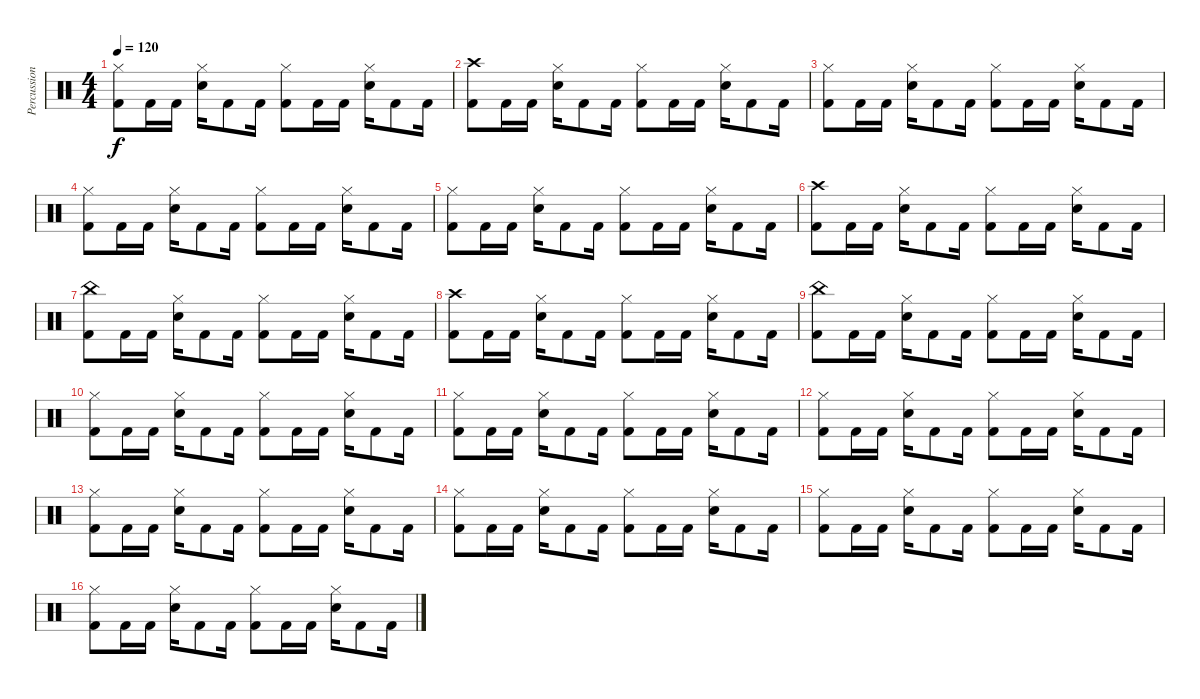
\track ("Percussion" "Percussion") {instrument percussion}
\staff {score}
\articulation defaults
\ts (4 4)
\tempo 120
\clef neutral
\ks c
("Hi-Hat (closed)" "Kick (hit) 2").8{dy f} "Kick (hit) 2".16 "Kick (hit) 2".16 ("Hi-Hat (closed)" "Electric Snare (hit)").16 "Kick (hit) 2".8 "Kick (hit) 2".16 ("Hi-Hat (closed)" "Kick (hit) 2").8 "Kick (hit) 2".16 "Kick (hit) 2".16 ("Hi-Hat (closed)" "Electric Snare (hit)").16 "Kick (hit) 2".8 "Kick (hit) 2".16 |
("Crash high (hit)" "Kick (hit) 2").8 "Kick (hit) 2".16 "Kick (hit) 2".16 ("Hi-Hat (closed)" "Electric Snare (hit)").16 "Kick (hit) 2".8 "Kick (hit) 2".16 ("Hi-Hat (closed)" "Kick (hit) 2").8 "Kick (hit) 2".16 "Kick (hit) 2".16 ("Hi-Hat (closed)" "Electric Snare (hit)").16 "Kick (hit) 2".8 "Kick (hit) 2".16 |
("Hi-Hat (closed)" "Kick (hit) 2").8 "Kick (hit) 2".16 "Kick (hit) 2".16 ("Hi-Hat (closed)" "Electric Snare (hit)").16 "Kick (hit) 2".8 "Kick (hit) 2".16 ("Hi-Hat (closed)" "Kick (hit) 2").8 "Kick (hit) 2".16 "Kick (hit) 2".16 ("Hi-Hat (closed)" "Electric Snare (hit)").16 "Kick (hit) 2".8 "Kick (hit) 2".16 |
("Hi-Hat (closed)" "Kick (hit) 2").8 "Kick (hit) 2".16 "Kick (hit) 2".16 ("Hi-Hat (closed)" "Electric Snare (hit)").16 "Kick (hit) 2".8 "Kick (hit) 2".16 ("Hi-Hat (closed)" "Kick (hit) 2").8 "Kick (hit) 2".16 "Kick (hit) 2".16 ("Hi-Hat (closed)" "Electric Snare (hit)").16 "Kick (hit) 2".8 "Kick (hit) 2".16 |
("Hi-Hat (closed)" "Kick (hit) 2").8 "Kick (hit) 2".16 "Kick (hit) 2".16 ("Hi-Hat (closed)" "Electric Snare (hit)").16 "Kick (hit) 2".8 "Kick (hit) 2".16 ("Hi-Hat (closed)" "Kick (hit) 2").8 "Kick (hit) 2".16 "Kick (hit) 2".16 ("Hi-Hat (closed)" "Electric Snare (hit)").16 "Kick (hit) 2".8 "Kick (hit) 2".16 |
("Crash high (hit)" "Kick (hit) 2").8 "Kick (hit) 2".16 "Kick (hit) 2".16 ("Hi-Hat (closed)" "Electric Snare (hit)").16 "Kick (hit) 2".8 "Kick (hit) 2".16 ("Hi-Hat (closed)" "Kick (hit) 2").8 "Kick (hit) 2".16 "Kick (hit) 2".16 ("Hi-Hat (closed)" "Electric Snare (hit)").16 "Kick (hit) 2".8 "Kick (hit) 2".16 |
("China (hit)" "Kick (hit) 2").8 "Kick (hit) 2".16 "Kick (hit) 2".16 ("Hi-Hat (closed)" "Electric Snare (hit)").16 "Kick (hit) 2".8 "Kick (hit) 2".16 ("Hi-Hat (closed)" "Kick (hit) 2").8 "Kick (hit) 2".16 "Kick (hit) 2".16 ("Hi-Hat (closed)" "Electric Snare (hit)").16 "Kick (hit) 2".8 "Kick (hit) 2".16 |
("Crash high (hit)" "Kick (hit) 2").8 "Kick (hit) 2".16 "Kick (hit) 2".16 ("Hi-Hat (closed)" "Electric Snare (hit)").16 "Kick (hit) 2".8 "Kick (hit) 2".16 ("Hi-Hat (closed)" "Kick (hit) 2").8 "Kick (hit) 2".16 "Kick (hit) 2".16 ("Hi-Hat (closed)" "Electric Snare (hit)").16 "Kick (hit) 2".8 "Kick (hit) 2".16 |
("China (hit)" "Kick (hit) 2").8 "Kick (hit) 2".16 "Kick (hit) 2".16 ("Hi-Hat (closed)" "Electric Snare (hit)").16 "Kick (hit) 2".8 "Kick (hit) 2".16 ("Hi-Hat (closed)" "Kick (hit) 2").8 "Kick (hit) 2".16 "Kick (hit) 2".16 ("Hi-Hat (closed)" "Electric Snare (hit)").16 "Kick (hit) 2".8 "Kick (hit) 2".16 |
("Hi-Hat (closed)" "Kick (hit) 2").8 "Kick (hit) 2".16 "Kick (hit) 2".16 ("Hi-Hat (closed)" "Electric Snare (hit)").16 "Kick (hit) 2".8 "Kick (hit) 2".16 ("Hi-Hat (closed)" "Kick (hit) 2").8 "Kick (hit) 2".16 "Kick (hit) 2".16 ("Hi-Hat (closed)" "Electric Snare (hit)").16 "Kick (hit) 2".8 "Kick (hit) 2".16 |
("Hi-Hat (closed)" "Kick (hit) 2").8 "Kick (hit) 2".16 "Kick (hit) 2".16 ("Hi-Hat (closed)" "Electric Snare (hit)").16 "Kick (hit) 2".8 "Kick (hit) 2".16 ("Hi-Hat (closed)" "Kick (hit) 2").8 "Kick (hit) 2".16 "Kick (hit) 2".16 ("Hi-Hat (closed)" "Electric Snare (hit)").16 "Kick (hit) 2".8 "Kick (hit) 2".16 |
("Hi-Hat (closed)" "Kick (hit) 2").8 "Kick (hit) 2".16 "Kick (hit) 2".16 ("Hi-Hat (closed)" "Electric Snare (hit)").16 "Kick (hit) 2".8 "Kick (hit) 2".16 ("Hi-Hat (closed)" "Kick (hit) 2").8 "Kick (hit) 2".16 "Kick (hit) 2".16 ("Hi-Hat (closed)" "Electric Snare (hit)").16 "Kick (hit) 2".8 "Kick (hit) 2".16 |
("Hi-Hat (closed)" "Kick (hit) 2").8 "Kick (hit) 2".16 "Kick (hit) 2".16 ("Hi-Hat (closed)" "Electric Snare (hit)").16 "Kick (hit) 2".8 "Kick (hit) 2".16 ("Hi-Hat (closed)" "Kick (hit) 2").8 "Kick (hit) 2".16 "Kick (hit) 2".16 ("Hi-Hat (closed)" "Electric Snare (hit)").16 "Kick (hit) 2".8 "Kick (hit) 2".16 |
("Hi-Hat (closed)" "Kick (hit) 2").8 "Kick (hit) 2".16 "Kick (hit) 2".16 ("Hi-Hat (closed)" "Electric Snare (hit)").16 "Kick (hit) 2".8 "Kick (hit) 2".16 ("Hi-Hat (closed)" "Kick (hit) 2").8 "Kick (hit) 2".16 "Kick (hit) 2".16 ("Hi-Hat (closed)" "Electric Snare (hit)").16 "Kick (hit) 2".8 "Kick (hit) 2".16 |
("Hi-Hat (closed)" "Kick (hit) 2").8 "Kick (hit) 2".16 "Kick (hit) 2".16 ("Hi-Hat (closed)" "Electric Snare (hit)").16 "Kick (hit) 2".8 "Kick (hit) 2".16 ("Hi-Hat (closed)" "Kick (hit) 2").8 "Kick (hit) 2".16 "Kick (hit) 2".16 ("Hi-Hat (closed)" "Electric Snare (hit)").16 "Kick (hit) 2".8 "Kick (hit) 2".16 |
("Hi-Hat (closed)" "Kick (hit) 2").8 "Kick (hit) 2".16 "Kick (hit) 2".16 ("Hi-Hat (closed)" "Electric Snare (hit)").16 "Kick (hit) 2".8 "Kick (hit) 2".16 ("Hi-Hat (closed)" "Kick (hit) 2").8 "Kick (hit) 2".16 "Kick (hit) 2".16 ("Hi-Hat (closed)" "Electric Snare (hit)").16 "Kick (hit) 2".8 "Kick (hit) 2".16
